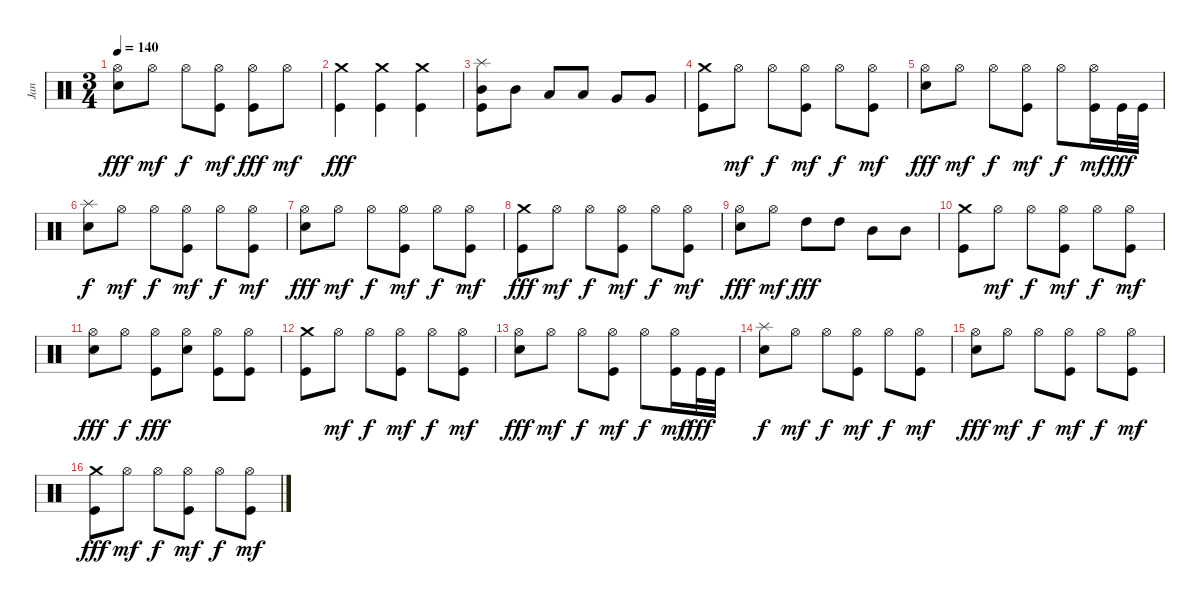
\track ("Jan" "Jan") {instrument percussion}
\staff {score}
\articulation defaults
\ts (3 4)
\tempo 140
\clef neutral
\ks c
("Snare (hit) 2" "Hi-Hat (open)").8{dy fff} "Hi-Hat (open)".8{dy mf} "Hi-Hat (open)".8{dy f} ("Kick (hit)" "Hi-Hat (open)").8{dy mf} ("Kick (hit)" "Hi-Hat (open)").8{dy fff} "Hi-Hat (open)".8{dy mf} |
("Kick (hit)" "Crash medium (hit)").4{dy fff} ("Kick (hit)" "Crash medium (hit)").4 ("Kick (hit)" "Crash medium (hit)").4 |
("Kick (hit)" "Mid Tom (hit)" "Splash (hit)").8 "Mid Tom (hit)".8 "Low Tom (hit)".8 "Low Tom (hit)".8 "Very Low Tom (hit)".8 "Very Low Tom (hit)".8 |
("Kick (hit)" "Crash medium (hit)").8 "Hi-Hat (open)".8{dy mf} "Hi-Hat (open)".8{dy f} ("Kick (hit)" "Hi-Hat (open)").8{dy mf} "Hi-Hat (open)".8{dy f} ("Kick (hit)" "Hi-Hat (open)").8{dy mf} |
("Snare (hit) 2" "Hi-Hat (open)").8{dy fff} "Hi-Hat (open)".8{dy mf} "Hi-Hat (open)".8{dy f} ("Kick (hit)" "Hi-Hat (open)").8{dy mf} "Hi-Hat (open)".8{dy f} ("Kick (hit)" "Hi-Hat (open)").16{dy mf} "Kick (hit)".32{dy fff} "Kick (hit)".32 |
("Snare (hit) 2" "Splash (hit)").8{dy f} "Hi-Hat (open)".8{dy mf} "Hi-Hat (open)".8{dy f} ("Kick (hit)" "Hi-Hat (open)").8{dy mf} "Hi-Hat (open)".8{dy f} ("Kick (hit)" "Hi-Hat (open)").8{dy mf} |
("Snare (hit) 2" "Hi-Hat (open)").8{dy fff} "Hi-Hat (open)".8{dy mf} "Hi-Hat (open)".8{dy f} ("Kick (hit)" "Hi-Hat (open)").8{dy mf} "Hi-Hat (open)".8{dy f} ("Kick (hit)" "Hi-Hat (open)").8{dy mf} |
("Kick (hit)" "Crash medium (hit)").8{dy fff} "Hi-Hat (open)".8{dy mf} "Hi-Hat (open)".8{dy f} ("Kick (hit)" "Hi-Hat (open)").8{dy mf} "Hi-Hat (open)".8{dy f} ("Kick (hit)" "Hi-Hat (open)").8{dy mf} |
("Snare (hit) 2" "Hi-Hat (open)").8{dy fff} "Hi-Hat (open)".8{dy mf} "High Tom (hit)".8{dy fff} "High Tom (hit)".8 "Mid Tom (hit)".8 "Mid Tom (hit)".8 |
("Kick (hit)" "Crash medium (hit)").8 "Hi-Hat (open)".8{dy mf} "Hi-Hat (open)".8{dy f} ("Kick (hit)" "Hi-Hat (open)").8{dy mf} "Hi-Hat (open)".8{dy f} ("Kick (hit)" "Hi-Hat (open)").8{dy mf} |
("Snare (hit) 2" "Hi-Hat (open)").8{dy fff} "Hi-Hat (open)".8{dy f} ("Kick (hit)" "Hi-Hat (open)").8{dy fff} ("Snare (hit) 2" "Hi-Hat (open)").8 ("Kick (hit)" "Hi-Hat (open)").8 ("Kick (hit)" "Hi-Hat (open)").8 |
("Kick (hit)" "Crash medium (hit)").8 "Hi-Hat (open)".8{dy mf} "Hi-Hat (open)".8{dy f} ("Kick (hit)" "Hi-Hat (open)").8{dy mf} "Hi-Hat (open)".8{dy f} ("Kick (hit)" "Hi-Hat (open)").8{dy mf} |
("Snare (hit) 2" "Hi-Hat (open)").8{dy fff} "Hi-Hat (open)".8{dy mf} "Hi-Hat (open)".8{dy f} ("Kick (hit)" "Hi-Hat (open)").8{dy mf} "Hi-Hat (open)".8{dy f} ("Kick (hit)" "Hi-Hat (open)").16{dy mf} "Kick (hit)".32{dy fff} "Kick (hit)".32 |
("Snare (hit) 2" "Splash (hit)").8{dy f} "Hi-Hat (open)".8{dy mf} "Hi-Hat (open)".8{dy f} ("Kick (hit)" "Hi-Hat (open)").8{dy mf} "Hi-Hat (open)".8{dy f} ("Kick (hit)" "Hi-Hat (open)").8{dy mf} |
("Snare (hit) 2" "Hi-Hat (open)").8{dy fff} "Hi-Hat (open)".8{dy mf} "Hi-Hat (open)".8{dy f} ("Kick (hit)" "Hi-Hat (open)").8{dy mf} "Hi-Hat (open)".8{dy f} ("Kick (hit)" "Hi-Hat (open)").8{dy mf} |
("Kick (hit)" "Crash medium (hit)").8{dy fff} "Hi-Hat (open)".8{dy mf} "Hi-Hat (open)".8{dy f} ("Kick (hit)" "Hi-Hat (open)").8{dy mf} "Hi-Hat (open)".8{dy f} ("Kick (hit)" "Hi-Hat (open)").8{dy mf}
